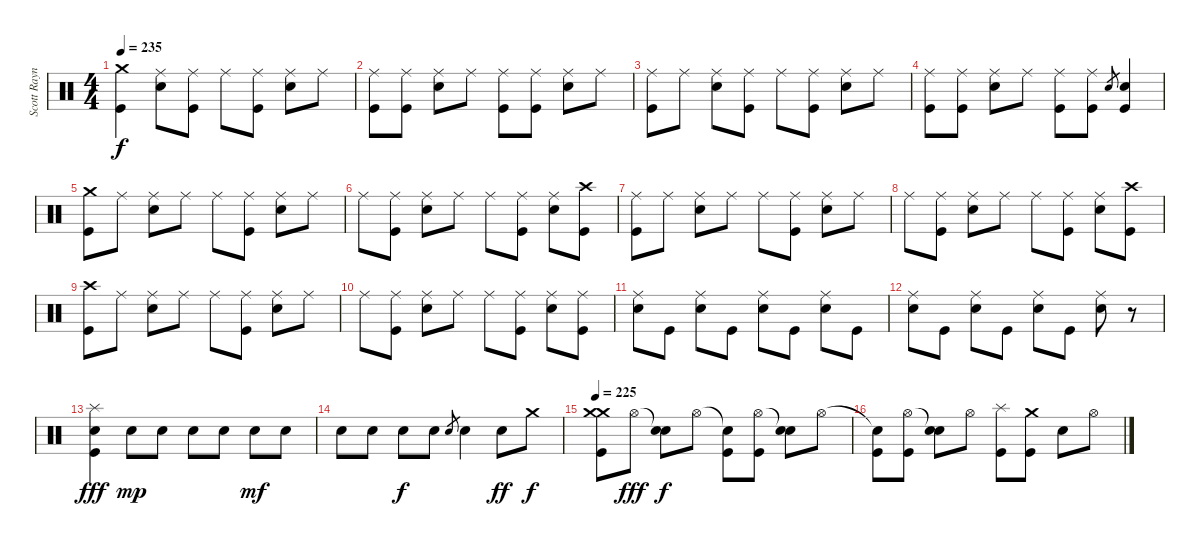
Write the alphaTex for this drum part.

\track ("Scott Raynor - Drums/Bateria" "Scott Rayn") {instrument percussion}
\staff {score}
\articulation defaults
\ts (4 4)
\tempo 235
\clef neutral
\ks c
("Crash medium (hit)" "Kick (hit)").4{dy f} ("Ride (middle)" "Electric Snare (hit)").8 ("Ride (middle)" "Kick (hit)").8 "Ride (middle)".8 ("Ride (middle)" "Kick (hit)").8 ("Ride (middle)" "Electric Snare (hit)").8 "Ride (middle)".8 |
("Ride (middle)" "Kick (hit)").8 ("Ride (middle)" "Kick (hit)").8 ("Ride (middle)" "Electric Snare (hit)").8 "Ride (middle)".8 ("Ride (middle)" "Kick (hit)").8 ("Ride (middle)" "Kick (hit)").8 ("Ride (middle)" "Electric Snare (hit)").8 "Ride (middle)".8 |
("Ride (middle)" "Kick (hit)").8 "Ride (middle)".8 ("Ride (middle)" "Electric Snare (hit)").8 ("Ride (middle)" "Kick (hit)").8 "Ride (middle)".8 ("Ride (middle)" "Kick (hit)").8 ("Ride (middle)" "Electric Snare (hit)").8 "Ride (middle)".8 |
("Ride (middle)" "Kick (hit)").8 ("Ride (middle)" "Kick (hit)").8 ("Ride (middle)" "Electric Snare (hit)").8 "Ride (middle)".8 ("Ride (middle)" "Kick (hit)").8 ("Ride (middle)" "Kick (hit)").8 "Electric Snare (hit)".8{gr} ("Electric Snare (hit)" "Kick (hit)").4 |
("Crash medium (hit)" "Kick (hit)").8 "Ride (middle)".8 ("Ride (middle)" "Electric Snare (hit)").8 "Ride (middle)".8 "Ride (middle)".8 ("Ride (middle)" "Kick (hit)").8 ("Ride (middle)" "Electric Snare (hit)").8 "Ride (middle)".8 |
"Ride (middle)".8 ("Ride (middle)" "Kick (hit)").8 ("Ride (middle)" "Electric Snare (hit)").8 "Ride (middle)".8 "Ride (middle)".8 ("Ride (middle)" "Kick (hit)").8 ("Ride (middle)" "Electric Snare (hit)").8 ("Crash high (hit)" "Kick (hit)").8 |
("Ride (middle)" "Kick (hit)").8 "Ride (middle)".8 ("Ride (middle)" "Electric Snare (hit)").8 "Ride (middle)".8 "Ride (middle)".8 ("Ride (middle)" "Kick (hit)").8 ("Ride (middle)" "Electric Snare (hit)").8 "Ride (middle)".8 |
"Ride (middle)".8 ("Ride (middle)" "Kick (hit)").8 ("Ride (middle)" "Electric Snare (hit)").8 "Ride (middle)".8 "Ride (middle)".8 ("Ride (middle)" "Kick (hit)").8 ("Ride (middle)" "Electric Snare (hit)").8 ("Crash high (hit)" "Kick (hit)").8 |
("Crash high (hit)" "Kick (hit)").8 "Ride (middle)".8 ("Ride (middle)" "Electric Snare (hit)").8 "Ride (middle)".8 "Ride (middle)".8 ("Ride (middle)" "Kick (hit)").8 ("Ride (middle)" "Electric Snare (hit)").8 "Ride (middle)".8 |
"Ride (middle)".8 ("Ride (middle)" "Kick (hit)").8 ("Ride (middle)" "Electric Snare (hit)").8 "Ride (middle)".8 "Ride (middle)".8 ("Ride (middle)" "Kick (hit)").8 ("Ride (middle)" "Electric Snare (hit)").8 ("Ride (middle)" "Kick (hit)").8 |
("Ride (middle)" "Electric Snare (hit)").8 "Kick (hit)".8 ("Ride (middle)" "Electric Snare (hit)").8 "Kick (hit)".8 ("Ride (middle)" "Electric Snare (hit)").8 "Kick (hit)".8 ("Ride (middle)" "Electric Snare (hit)").8 "Kick (hit)".8 |
("Ride (middle)" "Electric Snare (hit)").8 "Kick (hit)".8 ("Ride (middle)" "Electric Snare (hit)").8 "Kick (hit)".8 ("Ride (middle)" "Electric Snare (hit)").8 "Kick (hit)".8 ("Ride (middle)" "Electric Snare (hit)").8 r.8 |
("Splash (hit)" "Electric Snare (hit)" "Kick (hit)").4{dy fff} "Electric Snare (hit)".8{dy mp} "Electric Snare (hit)".8 "Electric Snare (hit)".8 "Electric Snare (hit)".8 "Electric Snare (hit)".8{dy mf} "Electric Snare (hit)".8 |
"Electric Snare (hit)".8 "Electric Snare (hit)".8 "Electric Snare (hit)".8{dy f} "Electric Snare (hit)".8 "Electric Snare (hit)".8{gr} "Electric Snare (hit)".4 "Electric Snare (hit)".8{dy ff} "Crash medium (hit)".8{dy f} |
\tempo 225
("Crash medium (hit)" "Crash medium (hit)" "Kick (hit)").8 "Hi-Hat (open)".8{dy fff} ("Snare (hit)"{t} "Electric Snare (hit)").8{dy f} "Hi-Hat (open)".8 ("Snare (hit)"{t} "Kick (hit)").8 ("Hi-Hat (open)" "Kick (hit)").8 ("Snare (hit)"{t} "Electric Snare (hit)").8 "Hi-Hat (open)".8 |
("Snare (hit)"{t} "Kick (hit)").8 ("Hi-Hat (open)" "Kick (hit)").8 ("Snare (hit)"{t} "Electric Snare (hit)").8 "Hi-Hat (open)".8 ("Splash (hit)" "Kick (hit)").8 ("Crash medium (hit)" "Kick (hit)").8 "Electric Snare (hit)".8 "Hi-Hat (open)".8
